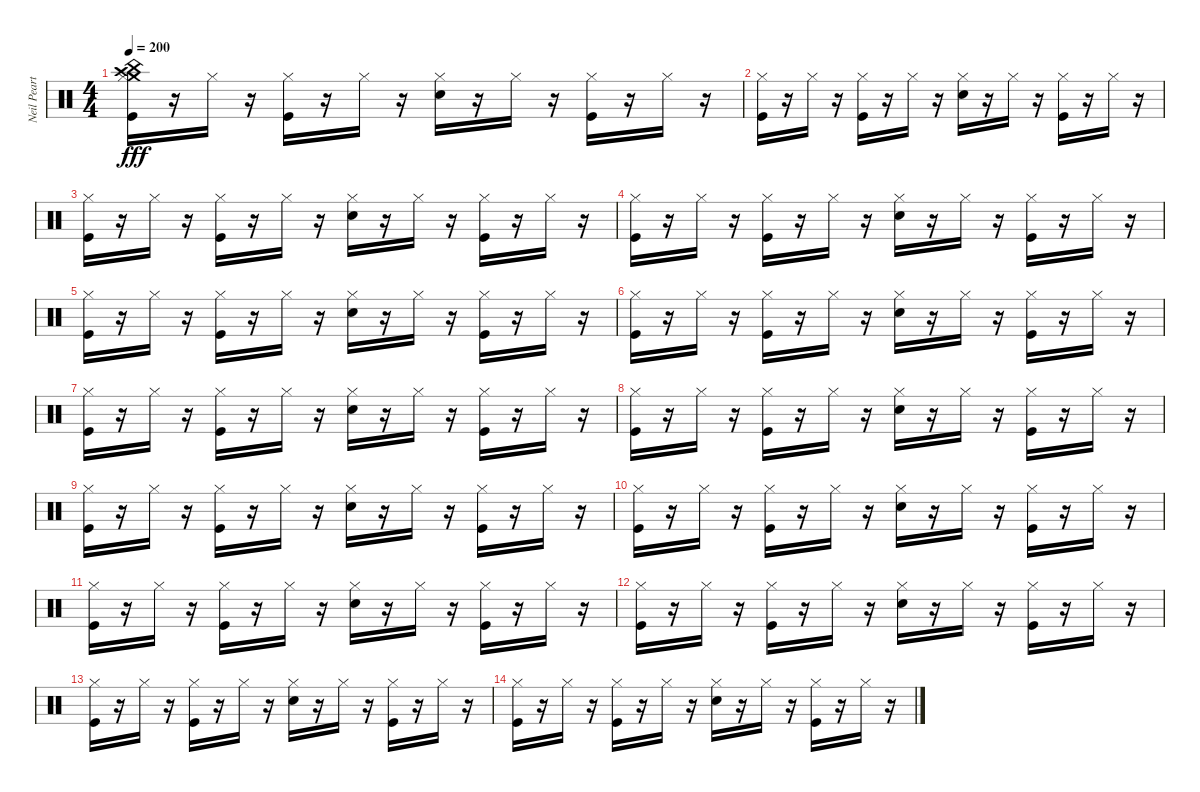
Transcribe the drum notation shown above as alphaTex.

\track ("Neil Peart" "Neil Peart") {instrument percussion}
\staff {score}
\articulation defaults
\ts (4 4)
\tempo 200
\clef neutral
\ks c
("Crash medium (hit)" "China (hit)" "Crash high (hit)" "Hi-Hat (closed)" "Kick (hit)").16{dy fff} r.16 "Hi-Hat (closed)".16 r.16 ("Hi-Hat (closed)" "Kick (hit)").16 r.16 "Hi-Hat (closed)".16 r.16 ("Hi-Hat (closed)" "Snare (hit) 2").16 r.16 "Hi-Hat (closed)".16 r.16 ("Hi-Hat (closed)" "Kick (hit)").16 r.16 "Hi-Hat (closed)".16 r.16 |
("Hi-Hat (closed)" "Kick (hit)").16 r.16 "Hi-Hat (closed)".16 r.16 ("Hi-Hat (closed)" "Kick (hit)").16 r.16 "Hi-Hat (closed)".16 r.16 ("Hi-Hat (closed)" "Snare (hit) 2").16 r.16 "Hi-Hat (closed)".16 r.16 ("Hi-Hat (closed)" "Kick (hit)").16 r.16 "Hi-Hat (closed)".16 r.16 |
("Hi-Hat (closed)" "Kick (hit)").16 r.16 "Hi-Hat (closed)".16 r.16 ("Hi-Hat (closed)" "Kick (hit)").16 r.16 "Hi-Hat (closed)".16 r.16 ("Hi-Hat (closed)" "Snare (hit) 2").16 r.16 "Hi-Hat (closed)".16 r.16 ("Hi-Hat (closed)" "Kick (hit)").16 r.16 "Hi-Hat (closed)".16 r.16 |
("Hi-Hat (closed)" "Kick (hit)").16 r.16 "Hi-Hat (closed)".16 r.16 ("Hi-Hat (closed)" "Kick (hit)").16 r.16 "Hi-Hat (closed)".16 r.16 ("Hi-Hat (closed)" "Snare (hit) 2").16 r.16 "Hi-Hat (closed)".16 r.16 ("Hi-Hat (closed)" "Kick (hit)").16 r.16 "Hi-Hat (closed)".16 r.16 |
("Hi-Hat (closed)" "Kick (hit)").16 r.16 "Hi-Hat (closed)".16 r.16 ("Hi-Hat (closed)" "Kick (hit)").16 r.16 "Hi-Hat (closed)".16 r.16 ("Hi-Hat (closed)" "Snare (hit) 2").16 r.16 "Hi-Hat (closed)".16 r.16 ("Hi-Hat (closed)" "Kick (hit)").16 r.16 "Hi-Hat (closed)".16 r.16 |
("Hi-Hat (closed)" "Kick (hit)").16{volume 16} r.16 "Hi-Hat (closed)".16{volume 16} r.16 ("Hi-Hat (closed)" "Kick (hit)").16{volume 15} r.16 "Hi-Hat (closed)".16{volume 15} r.16 ("Hi-Hat (closed)" "Snare (hit) 2").16{volume 15} r.16 "Hi-Hat (closed)".16{volume 15} r.16 ("Hi-Hat (closed)" "Kick (hit)").16{volume 14} r.16 "Hi-Hat (closed)".16{volume 14} r.16 |
("Hi-Hat (closed)" "Kick (hit)").16{volume 14} r.16 "Hi-Hat (closed)".16{volume 14} r.16 ("Hi-Hat (closed)" "Kick (hit)").16{volume 14} r.16 "Hi-Hat (closed)".16{volume 13} r.16 ("Hi-Hat (closed)" "Snare (hit) 2").16{volume 13} r.16 "Hi-Hat (closed)".16{volume 13} r.16 ("Hi-Hat (closed)" "Kick (hit)").16{volume 12} r.16 "Hi-Hat (closed)".16{volume 12} r.16 |
("Hi-Hat (closed)" "Kick (hit)").16{volume 12} r.16 "Hi-Hat (closed)".16{volume 12} r.16 ("Hi-Hat (closed)" "Kick (hit)").16{volume 12} r.16 "Hi-Hat (closed)".16{volume 11} r.16 ("Hi-Hat (closed)" "Snare (hit) 2").16{volume 11} r.16 "Hi-Hat (closed)".16{volume 11} r.16 ("Hi-Hat (closed)" "Kick (hit)").16{volume 10} r.16 "Hi-Hat (closed)".16{volume 10} r.16 |
("Hi-Hat (closed)" "Kick (hit)").16{volume 10} r.16 "Hi-Hat (closed)".16{volume 10} r.16 ("Hi-Hat (closed)" "Kick (hit)").16{volume 10} r.16 "Hi-Hat (closed)".16{volume 9} r.16 ("Hi-Hat (closed)" "Snare (hit) 2").16{volume 9} r.16 "Hi-Hat (closed)".16{volume 9} r.16 ("Hi-Hat (closed)" "Kick (hit)").16{volume 8} r.16 "Hi-Hat (closed)".16{volume 8} r.16 |
("Hi-Hat (closed)" "Kick (hit)").16{volume 8} r.16 "Hi-Hat (closed)".16{volume 8} r.16 ("Hi-Hat (closed)" "Kick (hit)").16{volume 8} r.16 "Hi-Hat (closed)".16{volume 7} r.16 ("Hi-Hat (closed)" "Snare (hit) 2").16{volume 7} r.16 "Hi-Hat (closed)".16{volume 7} r.16 ("Hi-Hat (closed)" "Kick (hit)").16{volume 6} r.16 "Hi-Hat (closed)".16{volume 6} r.16 |
("Hi-Hat (closed)" "Kick (hit)").16{volume 6} r.16 "Hi-Hat (closed)".16{volume 6} r.16 ("Hi-Hat (closed)" "Kick (hit)").16{volume 6} r.16 "Hi-Hat (closed)".16{volume 5} r.16 ("Hi-Hat (closed)" "Snare (hit) 2").16{volume 5} r.16 "Hi-Hat (closed)".16{volume 5} r.16 ("Hi-Hat (closed)" "Kick (hit)").16{volume 4} r.16 "Hi-Hat (closed)".16{volume 4} r.16 |
("Hi-Hat (closed)" "Kick (hit)").16{volume 4} r.16 "Hi-Hat (closed)".16{volume 4} r.16 ("Hi-Hat (closed)" "Kick (hit)").16{volume 4} r.16 "Hi-Hat (closed)".16{volume 3} r.16 ("Hi-Hat (closed)" "Snare (hit) 2").16{volume 3} r.16 "Hi-Hat (closed)".16{volume 3} r.16 ("Hi-Hat (closed)" "Kick (hit)").16{volume 2} r.16 "Hi-Hat (closed)".16{volume 2} r.16 |
("Hi-Hat (closed)" "Kick (hit)").16{volume 2} r.16 "Hi-Hat (closed)".16{volume 2} r.16 ("Hi-Hat (closed)" "Kick (hit)").16{volume 2} r.16 "Hi-Hat (closed)".16{volume 1} r.16 ("Hi-Hat (closed)" "Snare (hit) 2").16{volume 1} r.16 "Hi-Hat (closed)".16{volume 1} r.16 ("Hi-Hat (closed)" "Kick (hit)").16{volume 0} r.16 "Hi-Hat (closed)".16{volume 0} r.16 |
("Hi-Hat (closed)" "Kick (hit)").16{volume 0} r.16 "Hi-Hat (closed)".16 r.16 ("Hi-Hat (closed)" "Kick (hit)").16 r.16 "Hi-Hat (closed)".16 r.16 ("Hi-Hat (closed)" "Snare (hit) 2").16 r.16 "Hi-Hat (closed)".16 r.16 ("Hi-Hat (closed)" "Kick (hit)").16 r.16 "Hi-Hat (closed)".16 r.16
